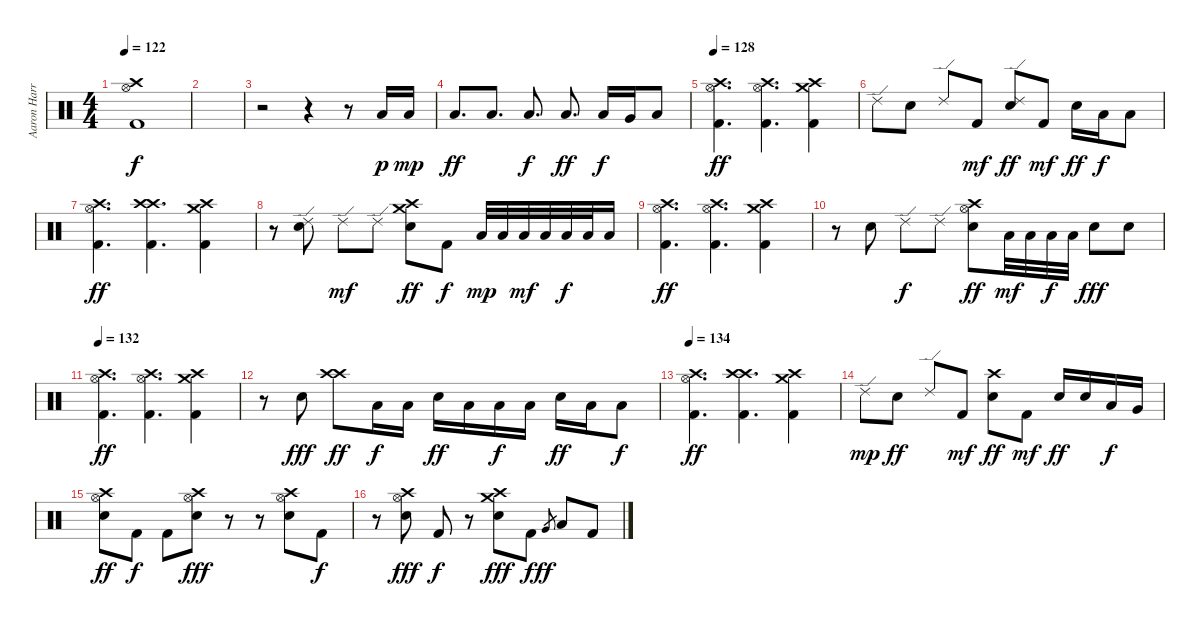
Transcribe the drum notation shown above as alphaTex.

\track ("Aaron Harris" "Aaron Harr") {instrument percussion}
\staff {score}
\articulation defaults
\ts (4 4)
\tempo 122
\clef neutral
\ks c
("Hi-Hat (open)" "Crash high (hit)" "Kick (hit) 2").1{dy f} |
|
r.2 r.4 r.8 "Low Tom (hit)".16{dy p} "Low Tom (hit)".16{dy mp} |
"Low Tom (hit)".8{d dy ff} "Low Tom (hit)".8{d} "Low Tom (hit)".8{d dy f} "Low Tom (hit)".8{d dy ff} "Low Tom (hit)".16{dy f} "Very Low Tom (hit)".16 "Low Floor Tom (hit)".8 |
\tempo 128
("Crash high (hit)" "Hi-Hat (open)" "Kick (hit) 2").4{d dy ff} ("Crash high (hit)" "Hi-Hat (open)" "Kick (hit) 2").4{d} ("Crash medium (hit)" "Crash high (hit)" "Kick (hit) 2").4 |
"Ride (edge) 2".8 "Electric Snare (hit)".8 "Ride (edge) 2".8 "Kick (hit) 2".8{dy mf} ("Ride (edge) 2" "Electric Snare (hit)").8{dy ff} "Kick (hit) 2".8{dy mf} "Electric Snare (hit)".16{dy ff} "Low Tom (hit)".16{dy f} "Low Floor Tom (hit)".8 |
("Crash high (hit)" "Hi-Hat (open)" "Kick (hit) 2").4{d dy ff} ("Crash high (hit)" "Crash high (hit)" "Kick (hit) 2").4{d} ("Crash medium (hit)" "Crash high (hit)" "Kick (hit) 2").4 |
r.8 ("Ride (edge) 2" "Electric Snare (hit)").8 "Ride (edge) 2".8{dy mf} "Ride (edge) 2".8 ("Crash high (hit)" "Crash medium (hit)" "Electric Snare (hit)").8{dy ff} "Kick (hit) 2".8{dy f} "Low Tom (hit)".32{dy mp} "Low Tom (hit)".32 "Low Tom (hit)".32{dy mf} "Low Tom (hit)".32 "Low Tom (hit)".32{dy f} "Low Tom (hit)".32 "Low Tom (hit)".16 |
("Crash high (hit)" "Hi-Hat (open)" "Kick (hit) 2").4{d dy ff} ("Crash high (hit)" "Hi-Hat (open)" "Kick (hit) 2").4{d} ("Crash medium (hit)" "Crash high (hit)" "Kick (hit) 2").4 |
r.8 "Electric Snare (hit)".8 "Ride (edge) 2".8{dy f} "Ride (edge) 2".8 ("Hi-Hat (open)" "Crash high (hit)" "Electric Snare (hit)").8{dy ff} "Low Tom (hit)".32{dy mf} "Low Tom (hit)".32 "Low Tom (hit)".32{dy f} "Low Tom (hit)".32 "Electric Snare (hit)".8{dy fff} "Electric Snare (hit)".8 |
\tempo 132
("Crash high (hit)" "Hi-Hat (open)" "Kick (hit) 2").4{d dy ff} ("Crash high (hit)" "Hi-Hat (open)" "Kick (hit) 2").4{d} ("Crash medium (hit)" "Crash high (hit)" "Kick (hit) 2").4 |
r.8 "Electric Snare (hit)".8{dy fff} ("Crash high (hit)" "Crash high (hit)").8{dy ff} "Low Tom (hit)".16{dy f} "Low Tom (hit)".16 "Electric Snare (hit)".16{dy ff} "Low Tom (hit)".16 "Low Tom (hit)".16{dy f} "Low Tom (hit)".16 "Electric Snare (hit)".16{dy ff} "Low Tom (hit)".16 "Low Tom (hit)".8{dy f} |
\tempo 134
("Crash high (hit)" "Hi-Hat (open)" "Kick (hit) 2").4{d dy ff} ("Crash high (hit)" "Crash high (hit)" "Kick (hit) 2").4{d} ("Crash medium (hit)" "Crash high (hit)" "Kick (hit) 2").4 |
"Ride (edge) 2".8{dy mp} "Electric Snare (hit)".8{dy ff} "Ride (edge) 2".8 "Kick (hit) 2".8{dy mf} ("Crash high (hit)" "Electric Snare (hit)").8{dy ff} "Kick (hit) 2".8{dy mf} "Electric Snare (hit)".16{dy ff} "Electric Snare (hit)".16 "Low Tom (hit)".16{dy f} "Very Low Tom (hit)".16 |
("Crash high (hit)" "Hi-Hat (open)" "Electric Snare (hit)").8{dy ff} "Kick (hit) 2".8{dy f} "Kick (hit) 2".8 ("Crash high (hit)" "Hi-Hat (open)" "Electric Snare (hit)").8{dy fff} r.8 r.8 ("Crash high (hit)" "Hi-Hat (open)" "Electric Snare (hit)").8 "Kick (hit) 2".8{dy f} |
r.8 ("Crash high (hit)" "Hi-Hat (open)" "Electric Snare (hit)").8{dy fff} "Kick (hit) 2".8{dy f} r.8 ("Crash medium (hit)" "Crash high (hit)" "Electric Snare (hit)").8{dy fff} "Kick (hit) 2".8{dy f} "Very Low Tom (hit)".8{gr dy ff} "Low Tom (hit)".8 "Kick (hit) 2".8
